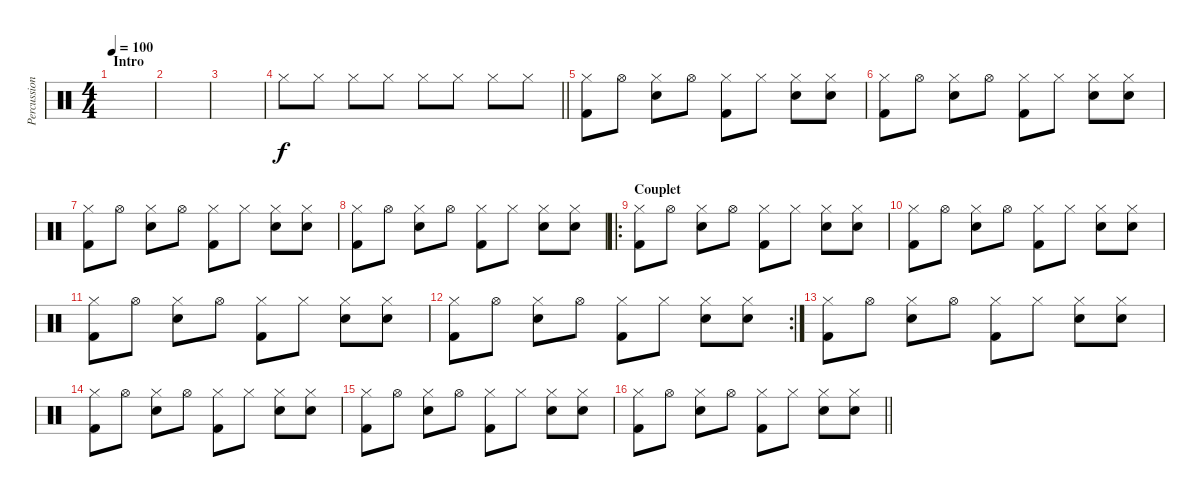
\track ("Percussions" "Percussion") {instrument percussion}
\staff {score}
\articulation defaults
\ts (4 4)
\section ("" "Intro")
\tempo 100
\clef neutral
\ks c
|
|
|
\barLineRight lightlight "Hi-Hat (closed)".8 "Hi-Hat (closed)".8 "Hi-Hat (closed)".8 "Hi-Hat (closed)".8 "Hi-Hat (closed)".8 "Hi-Hat (closed)".8 "Hi-Hat (closed)".8 "Hi-Hat (closed)".8
|
\section ("" "")
("Hi-Hat (closed)" "Kick (hit) 2").8 "Hi-Hat (open)".8 ("Hi-Hat (closed)" "Snare (hit) 2").8 "Hi-Hat (open)".8 ("Hi-Hat (closed)" "Kick (hit) 2").8 "Hi-Hat (closed)".8 ("Hi-Hat (closed)" "Snare (hit) 2").8 ("Hi-Hat (closed)" "Snare (hit) 2").8 |
("Hi-Hat (closed)" "Kick (hit) 2").8 "Hi-Hat (open)".8 ("Hi-Hat (closed)" "Snare (hit) 2").8 "Hi-Hat (open)".8 ("Hi-Hat (closed)" "Kick (hit) 2").8 "Hi-Hat (closed)".8 ("Hi-Hat (closed)" "Snare (hit) 2").8 ("Hi-Hat (closed)" "Snare (hit) 2").8 |
("Hi-Hat (closed)" "Kick (hit) 2").8 "Hi-Hat (open)".8 ("Hi-Hat (closed)" "Snare (hit) 2").8 "Hi-Hat (open)".8 ("Hi-Hat (closed)" "Kick (hit) 2").8 "Hi-Hat (closed)".8 ("Hi-Hat (closed)" "Snare (hit) 2").8 ("Hi-Hat (closed)" "Snare (hit) 2").8 |
("Hi-Hat (closed)" "Kick (hit) 2").8 "Hi-Hat (open)".8 ("Hi-Hat (closed)" "Snare (hit) 2").8 "Hi-Hat (open)".8 ("Hi-Hat (closed)" "Kick (hit) 2").8 "Hi-Hat (closed)".8 ("Hi-Hat (closed)" "Snare (hit) 2").8 ("Hi-Hat (closed)" "Snare (hit) 2").8 |
\ro
\section ("" "Couplet")
("Hi-Hat (closed)" "Kick (hit) 2").8 "Hi-Hat (open)".8 ("Hi-Hat (closed)" "Snare (hit) 2").8 "Hi-Hat (open)".8 ("Hi-Hat (closed)" "Kick (hit) 2").8 "Hi-Hat (closed)".8 ("Hi-Hat (closed)" "Snare (hit) 2").8 ("Hi-Hat (closed)" "Snare (hit) 2").8 |
("Hi-Hat (closed)" "Kick (hit) 2").8 "Hi-Hat (open)".8 ("Hi-Hat (closed)" "Snare (hit) 2").8 "Hi-Hat (open)".8 ("Hi-Hat (closed)" "Kick (hit) 2").8 "Hi-Hat (closed)".8 ("Hi-Hat (closed)" "Snare (hit) 2").8 ("Hi-Hat (closed)" "Snare (hit) 2").8 |
("Hi-Hat (closed)" "Kick (hit) 2").8 "Hi-Hat (open)".8 ("Hi-Hat (closed)" "Snare (hit) 2").8 "Hi-Hat (open)".8 ("Hi-Hat (closed)" "Kick (hit) 2").8 "Hi-Hat (closed)".8 ("Hi-Hat (closed)" "Snare (hit) 2").8 ("Hi-Hat (closed)" "Snare (hit) 2").8 |
\rc 2
("Hi-Hat (closed)" "Kick (hit) 2").8 "Hi-Hat (open)".8 ("Hi-Hat (closed)" "Snare (hit) 2").8 "Hi-Hat (open)".8 ("Hi-Hat (closed)" "Kick (hit) 2").8 "Hi-Hat (closed)".8 ("Hi-Hat (closed)" "Snare (hit) 2").8 ("Hi-Hat (closed)" "Snare (hit) 2").8 |
("Hi-Hat (closed)" "Kick (hit) 2").8 "Hi-Hat (open)".8 ("Hi-Hat (closed)" "Snare (hit) 2").8 "Hi-Hat (open)".8 ("Hi-Hat (closed)" "Kick (hit) 2").8 "Hi-Hat (closed)".8 ("Hi-Hat (closed)" "Snare (hit) 2").8 ("Hi-Hat (closed)" "Snare (hit) 2").8 |
("Hi-Hat (closed)" "Kick (hit) 2").8 "Hi-Hat (open)".8 ("Hi-Hat (closed)" "Snare (hit) 2").8 "Hi-Hat (open)".8 ("Hi-Hat (closed)" "Kick (hit) 2").8 "Hi-Hat (closed)".8 ("Hi-Hat (closed)" "Snare (hit) 2").8 ("Hi-Hat (closed)" "Snare (hit) 2").8 |
("Hi-Hat (closed)" "Kick (hit) 2").8 "Hi-Hat (open)".8 ("Hi-Hat (closed)" "Snare (hit) 2").8 "Hi-Hat (open)".8 ("Hi-Hat (closed)" "Kick (hit) 2").8 "Hi-Hat (closed)".8 ("Hi-Hat (closed)" "Snare (hit) 2").8 ("Hi-Hat (closed)" "Snare (hit) 2").8 |
\barLineRight lightlight
("Hi-Hat (closed)" "Kick (hit) 2").8 "Hi-Hat (open)".8 ("Hi-Hat (closed)" "Snare (hit) 2").8 "Hi-Hat (open)".8 ("Hi-Hat (closed)" "Kick (hit) 2").8 "Hi-Hat (closed)".8 ("Hi-Hat (closed)" "Snare (hit) 2").8 ("Hi-Hat (closed)" "Snare (hit) 2").8
